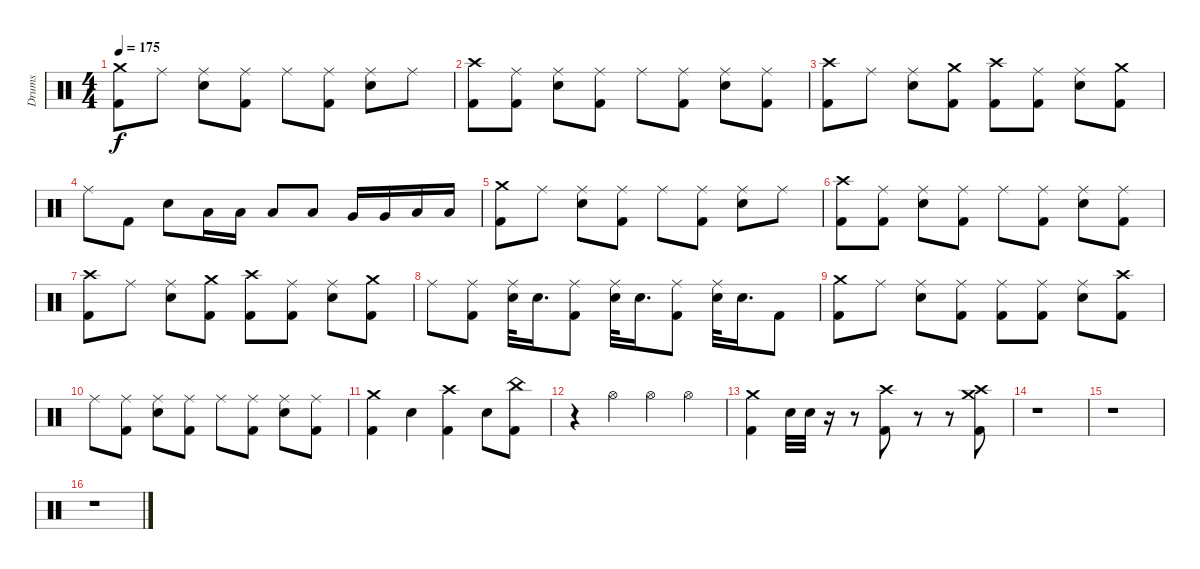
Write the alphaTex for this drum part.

\track ("Drums" "Drums") {instrument percussion}
\staff {score}
\articulation defaults
\ts (4 4)
\tempo 175
\clef neutral
\ks c
("Kick (hit) 2" "Crash medium (hit)").8{dy f} "Ride (middle)".8 ("Snare (hit) 2" "Ride (middle)").8 ("Kick (hit) 2" "Ride (middle)").8 "Ride (middle)".8 ("Kick (hit) 2" "Ride (middle)").8 ("Snare (hit) 2" "Ride (middle)").8 "Ride (middle)".8 |
("Kick (hit) 2" "Crash high (hit)").8 ("Kick (hit) 2" "Ride (middle)").8 ("Snare (hit) 2" "Ride (middle)").8 ("Kick (hit) 2" "Ride (middle)").8 "Ride (middle)".8 ("Kick (hit) 2" "Ride (middle)").8 ("Snare (hit) 2" "Ride (middle)").8 ("Kick (hit) 2" "Ride (middle)").8 |
("Kick (hit) 2" "Crash high (hit)").8 "Ride (middle)".8 ("Snare (hit) 2" "Ride (middle)").8 ("Kick (hit) 2" "Crash medium (hit)").8 ("Kick (hit) 2" "Crash high (hit)").8 ("Kick (hit) 2" "Ride (middle)").8 ("Snare (hit) 2" "Ride (middle)").8 ("Kick (hit) 2" "Crash medium (hit)").8 |
"Ride (middle)".8 "Kick (hit) 2".8 "Snare (hit) 2".8 "Low Tom (hit)".16 "Low Tom (hit)".16 "Low Tom (hit)".8 "Low Tom (hit)".8 "Very Low Tom (hit)".16 "Very Low Tom (hit)".16 "Low Floor Tom (hit)".16 "Low Floor Tom (hit)".16 |
("Kick (hit) 2" "Crash medium (hit)").8 "Ride (middle)".8 ("Snare (hit) 2" "Ride (middle)").8 ("Kick (hit) 2" "Ride (middle)").8 "Ride (middle)".8 ("Kick (hit) 2" "Ride (middle)").8 ("Snare (hit) 2" "Ride (middle)").8 "Ride (middle)".8 |
("Kick (hit) 2" "Crash high (hit)").8 ("Kick (hit) 2" "Ride (middle)").8 ("Snare (hit) 2" "Ride (middle)").8 ("Kick (hit) 2" "Ride (middle)").8 "Ride (middle)".8 ("Kick (hit) 2" "Ride (middle)").8 ("Snare (hit) 2" "Ride (middle)").8 ("Kick (hit) 2" "Ride (middle)").8 |
("Kick (hit) 2" "Crash high (hit)").8 "Ride (middle)".8 ("Snare (hit) 2" "Ride (middle)").8 ("Kick (hit) 2" "Crash medium (hit)").8 ("Kick (hit) 2" "Crash high (hit)").8 ("Kick (hit) 2" "Ride (middle)").8 ("Snare (hit) 2" "Ride (middle)").8 ("Kick (hit) 2" "Crash medium (hit)").8 |
"Ride (middle)".8 ("Kick (hit) 2" "Ride (middle)").8 ("Snare (hit) 2" "Ride (middle)").32 "Snare (hit) 2".16{d} ("Kick (hit) 2" "Ride (middle)").8 ("Snare (hit) 2" "Ride (middle)").32 "Snare (hit) 2".16{d} ("Kick (hit) 2" "Ride (middle)").8 ("Snare (hit) 2" "Ride (middle)").32 "Snare (hit) 2".16{d} "Kick (hit) 2".8 |
("Kick (hit) 2" "Crash medium (hit)").8 "Ride (middle)".8 ("Snare (hit) 2" "Ride (middle)").8 ("Kick (hit) 2" "Ride (middle)").8 ("Kick (hit) 2" "Ride (middle)").8 ("Kick (hit) 2" "Ride (middle)").8 ("Snare (hit) 2" "Ride (middle)").8 ("Kick (hit) 2" "Crash high (hit)").8 |
"Ride (middle)".8 ("Kick (hit) 2" "Ride (middle)").8 ("Snare (hit) 2" "Ride (middle)").8 ("Kick (hit) 2" "Ride (middle)").8 "Ride (middle)".8 ("Kick (hit) 2" "Ride (middle)").8 ("Snare (hit) 2" "Ride (middle)").8 ("Kick (hit) 2" "Ride (middle)").8 |
("Kick (hit) 2" "Crash medium (hit)").4 "Snare (hit) 2".4 ("Kick (hit) 2" "Crash high (hit)").4 "Snare (hit) 2".8 ("Kick (hit) 2" "China (hit)").8 |
r.4 "Hi-Hat (open)".4 "Hi-Hat (open)".4 "Hi-Hat (open)".4 |
("Kick (hit) 2" "Crash medium (hit)").4 "Snare (hit) 2".32 "Snare (hit) 2".32 r.16 r.8 ("Kick (hit) 2" "Crash high (hit)").8 r.8 r.8 ("Kick (hit) 2" "Crash high (hit)" "Crash medium (hit)").8 |
r.1 |
r.1 |
r.1
